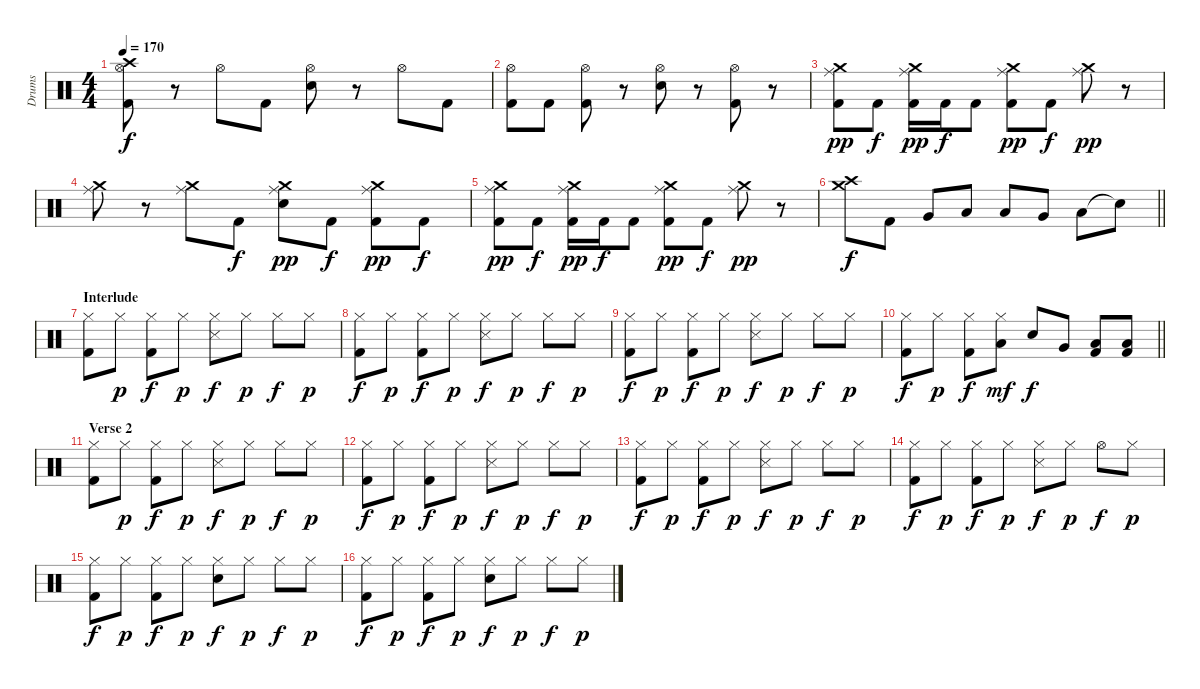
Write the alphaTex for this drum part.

\track ("Drums" "Drums") {instrument percussion}
\staff {score}
\articulation defaults
\ts (4 4)
\tempo 170
\clef neutral
\ks c
("Hi-Hat (open)" "Kick (hit) 2" "Crash high (hit)").8{dy f} r.8 "Hi-Hat (open)".8 "Kick (hit) 2".8 ("Hi-Hat (open)" "Electric Snare (hit)").8 r.8 "Hi-Hat (open)".8 "Kick (hit) 2".8 |
("Hi-Hat (open)" "Kick (hit) 2").8 "Kick (hit) 2".8 ("Hi-Hat (open)" "Kick (hit) 2").8 r.8 ("Hi-Hat (open)" "Electric Snare (hit)").8 r.8 ("Hi-Hat (open)" "Kick (hit) 2").8 r.8 |
("Ride (middle)" "Kick (hit) 2" "Crash medium (hit)").8{dy pp} "Kick (hit) 2".8{dy f} ("Ride (middle)" "Kick (hit) 2" "Crash medium (hit)").16{dy pp} "Kick (hit) 2".16{dy f} "Kick (hit) 2".8 ("Ride (middle)" "Kick (hit) 2" "Crash medium (hit)").8{dy pp} "Kick (hit) 2".8{dy f} ("Ride (middle)" "Crash medium (hit)").8{dy pp} r.8 |
("Ride (middle)" "Crash medium (hit)").8 r.8 ("Ride (middle)" "Crash medium (hit)").8 "Kick (hit) 2".8{dy f} ("Ride (middle)" "Electric Snare (hit)" "Crash medium (hit)").8{dy pp} "Kick (hit) 2".8{dy f} ("Ride (middle)" "Kick (hit) 2" "Crash medium (hit)").8{dy pp} "Kick (hit) 2".8{dy f} |
("Ride (middle)" "Kick (hit) 2" "Crash medium (hit)").8{dy pp} "Kick (hit) 2".8{dy f} ("Ride (middle)" "Kick (hit) 2" "Crash medium (hit)").16{dy pp} "Kick (hit) 2".16{dy f} "Kick (hit) 2".8 ("Ride (middle)" "Kick (hit) 2" "Crash medium (hit)").8{dy pp} "Kick (hit) 2".8{dy f} ("Ride (middle)" "Crash medium (hit)").8{dy pp} r.8 |
\barLineRight lightlight
("Crash high (hit)" "Crash medium (hit)").8{dy f} "Kick (hit) 2".8 "Very Low Tom (hit)".8 "Low Floor Tom (hit)".8 "Low Tom (hit)".8 "Very Low Tom (hit)".8 "Low Floor Tom (hit)".8 "Snare (hit)"{t}.8 |
\section ("" "Interlude")
("Hi-Hat (closed)" "Kick (hit) 2").8 "Hi-Hat (closed)".8{dy p} ("Hi-Hat (closed)" "Kick (hit) 2").8{dy f} "Hi-Hat (closed)".8{dy p} ("Hi-Hat (closed)" "Snare (side stick) 3").8{dy f} "Hi-Hat (closed)".8{dy p} "Hi-Hat (closed)".8{dy f} "Hi-Hat (closed)".8{dy p} |
("Hi-Hat (closed)" "Kick (hit) 2").8{dy f} "Hi-Hat (closed)".8{dy p} ("Hi-Hat (closed)" "Kick (hit) 2").8{dy f} "Hi-Hat (closed)".8{dy p} ("Hi-Hat (closed)" "Snare (side stick) 3").8{dy f} "Hi-Hat (closed)".8{dy p} "Hi-Hat (closed)".8{dy f} "Hi-Hat (closed)".8{dy p} |
("Hi-Hat (closed)" "Kick (hit) 2").8{dy f} "Hi-Hat (closed)".8{dy p} ("Hi-Hat (closed)" "Kick (hit) 2").8{dy f} "Hi-Hat (closed)".8{dy p} ("Hi-Hat (closed)" "Snare (side stick) 3").8{dy f} "Hi-Hat (closed)".8{dy p} "Hi-Hat (closed)".8{dy f} "Hi-Hat (closed)".8{dy p} |
\barLineRight lightlight
("Hi-Hat (closed)" "Kick (hit) 2").8{dy f} "Hi-Hat (closed)".8{dy p} ("Hi-Hat (closed)" "Kick (hit) 2").8{dy f} ("Hi-Hat (closed)" "Low Floor Tom (hit)").8{dy mf} "Electric Snare (hit)".8{dy f} "Very Low Tom (hit)".8 ("Low Floor Tom (hit)" "Kick (hit) 2").8 ("Low Floor Tom (hit)" "Kick (hit) 2").8 |
\section ("" "Verse 2")
("Hi-Hat (closed)" "Kick (hit) 2").8 "Hi-Hat (closed)".8{dy p} ("Hi-Hat (closed)" "Kick (hit) 2").8{dy f} "Hi-Hat (closed)".8{dy p} ("Hi-Hat (closed)" "Snare (side stick) 3").8{dy f} "Hi-Hat (closed)".8{dy p} "Hi-Hat (closed)".8{dy f} "Hi-Hat (closed)".8{dy p} |
("Hi-Hat (closed)" "Kick (hit) 2").8{dy f} "Hi-Hat (closed)".8{dy p} ("Hi-Hat (closed)" "Kick (hit) 2").8{dy f} "Hi-Hat (closed)".8{dy p} ("Hi-Hat (closed)" "Snare (side stick) 3").8{dy f} "Hi-Hat (closed)".8{dy p} "Hi-Hat (closed)".8{dy f} "Hi-Hat (closed)".8{dy p} |
("Hi-Hat (closed)" "Kick (hit) 2").8{dy f} "Hi-Hat (closed)".8{dy p} ("Hi-Hat (closed)" "Kick (hit) 2").8{dy f} "Hi-Hat (closed)".8{dy p} ("Hi-Hat (closed)" "Snare (side stick) 3").8{dy f} "Hi-Hat (closed)".8{dy p} "Hi-Hat (closed)".8{dy f} "Hi-Hat (closed)".8{dy p} |
("Hi-Hat (closed)" "Kick (hit) 2").8{dy f} "Hi-Hat (closed)".8{dy p} ("Hi-Hat (closed)" "Kick (hit) 2").8{dy f} "Hi-Hat (closed)".8{dy p} ("Hi-Hat (closed)" "Snare (side stick) 3").8{dy f} "Hi-Hat (closed)".8{dy p} "Hi-Hat (open)".8{dy f} "Hi-Hat (closed)".8{dy p} |
("Hi-Hat (closed)" "Kick (hit) 2").8{dy f} "Hi-Hat (closed)".8{dy p} ("Hi-Hat (closed)" "Kick (hit) 2").8{dy f} "Hi-Hat (closed)".8{dy p} ("Hi-Hat (closed)" "Electric Snare (hit)").8{dy f} "Hi-Hat (closed)".8{dy p} "Hi-Hat (closed)".8{dy f} "Hi-Hat (closed)".8{dy p} |
("Hi-Hat (closed)" "Kick (hit) 2").8{dy f} "Hi-Hat (closed)".8{dy p} ("Hi-Hat (closed)" "Kick (hit) 2").8{dy f} "Hi-Hat (closed)".8{dy p} ("Hi-Hat (closed)" "Electric Snare (hit)").8{dy f} "Hi-Hat (closed)".8{dy p} "Hi-Hat (closed)".8{dy f} "Hi-Hat (closed)".8{dy p}
